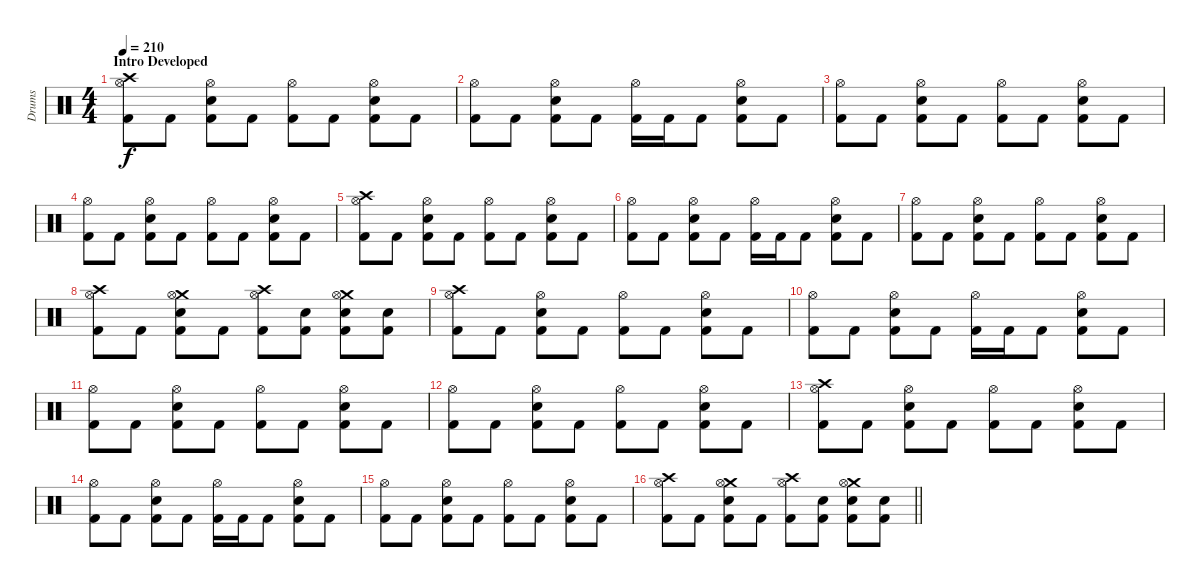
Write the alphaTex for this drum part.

\track ("Drums" "Drums") {instrument percussion}
\staff {score}
\articulation defaults
\ts (4 4)
\section ("" "Intro Developed")
\tempo 210
\clef neutral
\ks c
("Crash high (hit)" "Hi-Hat (open)" "Kick (hit) 2").8{dy f} "Kick (hit) 2".8 ("Hi-Hat (open)" "Snare (hit) 2" "Kick (hit) 2").8 "Kick (hit) 2".8 ("Hi-Hat (open)" "Kick (hit) 2").8 "Kick (hit) 2".8 ("Hi-Hat (open)" "Snare (hit) 2" "Kick (hit) 2").8 "Kick (hit) 2".8 |
("Hi-Hat (open)" "Kick (hit) 2").8 "Kick (hit) 2".8 ("Hi-Hat (open)" "Snare (hit) 2" "Kick (hit) 2").8 "Kick (hit) 2".8 ("Hi-Hat (open)" "Kick (hit) 2").16 "Kick (hit) 2".16 "Kick (hit) 2".8 ("Hi-Hat (open)" "Snare (hit) 2" "Kick (hit) 2").8 "Kick (hit) 2".8 |
("Hi-Hat (open)" "Kick (hit) 2").8 "Kick (hit) 2".8 ("Hi-Hat (open)" "Snare (hit) 2" "Kick (hit) 2").8 "Kick (hit) 2".8 ("Hi-Hat (open)" "Kick (hit) 2").8 "Kick (hit) 2".8 ("Hi-Hat (open)" "Snare (hit) 2" "Kick (hit) 2").8 "Kick (hit) 2".8 |
("Hi-Hat (open)" "Kick (hit) 2").8 "Kick (hit) 2".8 ("Hi-Hat (open)" "Snare (hit) 2" "Kick (hit) 2").8 "Kick (hit) 2".8 ("Hi-Hat (open)" "Kick (hit) 2").8 "Kick (hit) 2".8 ("Hi-Hat (open)" "Snare (hit) 2" "Kick (hit) 2").8 "Kick (hit) 2".8 |
("Crash high (hit)" "Hi-Hat (open)" "Kick (hit) 2").8 "Kick (hit) 2".8 ("Hi-Hat (open)" "Snare (hit) 2" "Kick (hit) 2").8 "Kick (hit) 2".8 ("Hi-Hat (open)" "Kick (hit) 2").8 "Kick (hit) 2".8 ("Hi-Hat (open)" "Snare (hit) 2" "Kick (hit) 2").8 "Kick (hit) 2".8 |
("Hi-Hat (open)" "Kick (hit) 2").8 "Kick (hit) 2".8 ("Hi-Hat (open)" "Snare (hit) 2" "Kick (hit) 2").8 "Kick (hit) 2".8 ("Hi-Hat (open)" "Kick (hit) 2").16 "Kick (hit) 2".16 "Kick (hit) 2".8 ("Hi-Hat (open)" "Snare (hit) 2" "Kick (hit) 2").8 "Kick (hit) 2".8 |
("Hi-Hat (open)" "Kick (hit) 2").8 "Kick (hit) 2".8 ("Hi-Hat (open)" "Snare (hit) 2" "Kick (hit) 2").8 "Kick (hit) 2".8 ("Hi-Hat (open)" "Kick (hit) 2").8 "Kick (hit) 2".8 ("Hi-Hat (open)" "Snare (hit) 2" "Kick (hit) 2").8 "Kick (hit) 2".8 |
("Crash high (hit)" "Hi-Hat (open)" "Kick (hit) 2").8 "Kick (hit) 2".8 ("Crash medium (hit)" "Hi-Hat (open)" "Snare (hit) 2" "Kick (hit) 2").8 "Kick (hit) 2".8 ("Crash high (hit)" "Hi-Hat (open)" "Kick (hit) 2").8 ("Snare (hit) 2" "Kick (hit) 2").8 ("Crash medium (hit)" "Hi-Hat (open)" "Snare (hit) 2" "Kick (hit) 2").8 ("Snare (hit) 2" "Kick (hit) 2").8 |
("Crash high (hit)" "Hi-Hat (open)" "Kick (hit) 2").8 "Kick (hit) 2".8 ("Hi-Hat (open)" "Snare (hit) 2" "Kick (hit) 2").8 "Kick (hit) 2".8 ("Hi-Hat (open)" "Kick (hit) 2").8 "Kick (hit) 2".8 ("Hi-Hat (open)" "Snare (hit) 2" "Kick (hit) 2").8 "Kick (hit) 2".8 |
("Hi-Hat (open)" "Kick (hit) 2").8 "Kick (hit) 2".8 ("Hi-Hat (open)" "Snare (hit) 2" "Kick (hit) 2").8 "Kick (hit) 2".8 ("Hi-Hat (open)" "Kick (hit) 2").16 "Kick (hit) 2".16 "Kick (hit) 2".8 ("Hi-Hat (open)" "Snare (hit) 2" "Kick (hit) 2").8 "Kick (hit) 2".8 |
("Hi-Hat (open)" "Kick (hit) 2").8 "Kick (hit) 2".8 ("Hi-Hat (open)" "Snare (hit) 2" "Kick (hit) 2").8 "Kick (hit) 2".8 ("Hi-Hat (open)" "Kick (hit) 2").8 "Kick (hit) 2".8 ("Hi-Hat (open)" "Snare (hit) 2" "Kick (hit) 2").8 "Kick (hit) 2".8 |
("Hi-Hat (open)" "Kick (hit) 2").8 "Kick (hit) 2".8 ("Hi-Hat (open)" "Snare (hit) 2" "Kick (hit) 2").8 "Kick (hit) 2".8 ("Hi-Hat (open)" "Kick (hit) 2").8 "Kick (hit) 2".8 ("Hi-Hat (open)" "Snare (hit) 2" "Kick (hit) 2").8 "Kick (hit) 2".8 |
("Crash high (hit)" "Hi-Hat (open)" "Kick (hit) 2").8 "Kick (hit) 2".8 ("Hi-Hat (open)" "Snare (hit) 2" "Kick (hit) 2").8 "Kick (hit) 2".8 ("Hi-Hat (open)" "Kick (hit) 2").8 "Kick (hit) 2".8 ("Hi-Hat (open)" "Snare (hit) 2" "Kick (hit) 2").8 "Kick (hit) 2".8 |
("Hi-Hat (open)" "Kick (hit) 2").8 "Kick (hit) 2".8 ("Hi-Hat (open)" "Snare (hit) 2" "Kick (hit) 2").8 "Kick (hit) 2".8 ("Hi-Hat (open)" "Kick (hit) 2").16 "Kick (hit) 2".16 "Kick (hit) 2".8 ("Hi-Hat (open)" "Snare (hit) 2" "Kick (hit) 2").8 "Kick (hit) 2".8 |
("Hi-Hat (open)" "Kick (hit) 2").8 "Kick (hit) 2".8 ("Hi-Hat (open)" "Snare (hit) 2" "Kick (hit) 2").8 "Kick (hit) 2".8 ("Hi-Hat (open)" "Kick (hit) 2").8 "Kick (hit) 2".8 ("Hi-Hat (open)" "Snare (hit) 2" "Kick (hit) 2").8 "Kick (hit) 2".8 |
\barLineRight lightlight
("Crash high (hit)" "Hi-Hat (open)" "Kick (hit) 2").8 "Kick (hit) 2".8 ("Crash medium (hit)" "Hi-Hat (open)" "Snare (hit) 2" "Kick (hit) 2").8 "Kick (hit) 2".8 ("Crash high (hit)" "Hi-Hat (open)" "Kick (hit) 2").8 ("Snare (hit) 2" "Kick (hit) 2").8 ("Crash medium (hit)" "Hi-Hat (open)" "Snare (hit) 2" "Kick (hit) 2").8 ("Snare (hit) 2" "Kick (hit) 2").8
